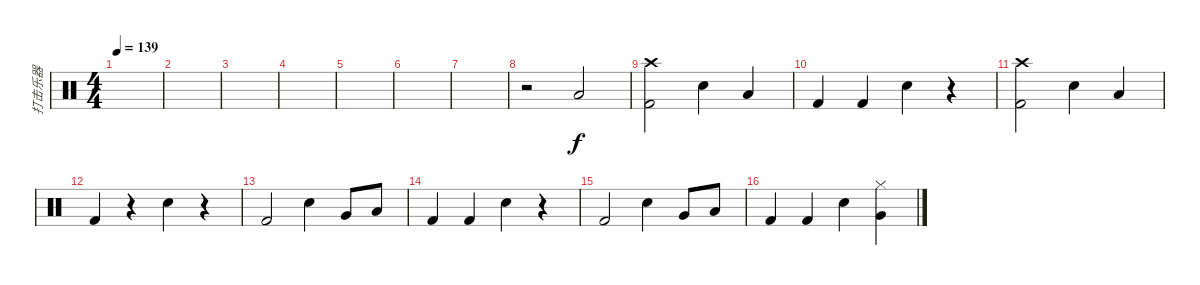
\track ("打击乐器" "打击乐器") {instrument percussion}
\staff {score}
\articulation defaults
\ts (4 4)
\tempo 139
\clef neutral
\ks c
|
|
|
|
|
|
|
r.2 "Low Tom (hit)".2 |
("Crash high (hit)" "Kick (hit) 2").2 "Electric Snare (hit)".4 "Low Floor Tom (hit)".4 |
"Kick (hit) 2".4 "Kick (hit) 2".4 "Electric Snare (hit)".4 r.4 |
("Crash high (hit)" "Kick (hit) 2").2 "Electric Snare (hit)".4 "Low Floor Tom (hit)".4 |
"Kick (hit) 2".4 r.4 "Electric Snare (hit)".4 r.4 |
"Kick (hit) 2".2 "Electric Snare (hit)".4 "Very Low Tom (hit)".8 "Low Floor Tom (hit)".8 |
"Kick (hit) 2".4 "Kick (hit) 2".4 "Electric Snare (hit)".4 r.4 |
"Kick (hit) 2".2 "Electric Snare (hit)".4 "Very Low Tom (hit)".8 "Low Floor Tom (hit)".8 |
"Kick (hit) 2".4 "Kick (hit) 2".4 "Electric Snare (hit)".4 ("Very Low Tom (hit)" "Hi-Hat (closed)").4
